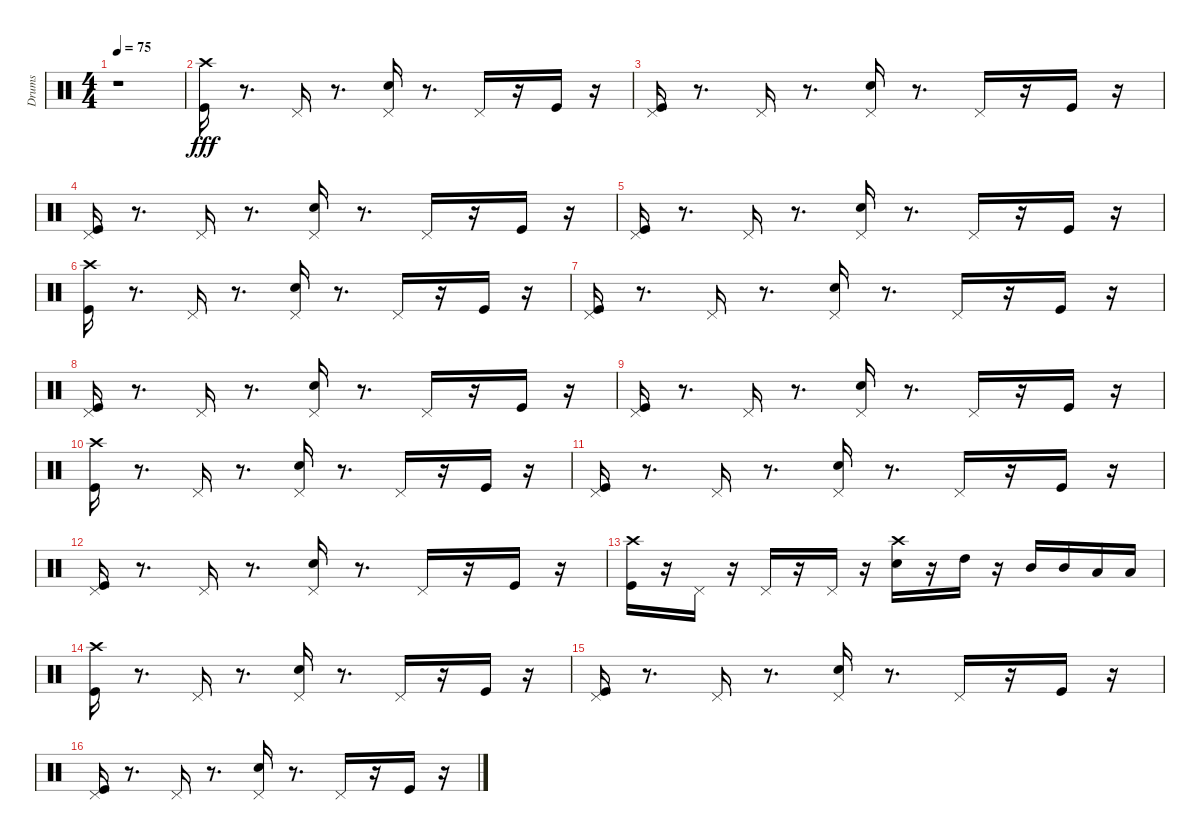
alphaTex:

\track ("Drums" "Drums") {instrument percussion}
\staff {score}
\articulation defaults
\ts (4 4)
\tempo 75
\clef neutral
\ks c
r.1{dy fff} |
("Crash high (hit)" "Kick (hit)").16 r.8{d} "Pedal Hi-Hat (hit)".16 r.8{d} ("Snare (hit) 2" "Pedal Hi-Hat (hit)").16 r.8{d} "Pedal Hi-Hat (hit)".16 r.16 "Kick (hit)".16 r.16 |
("Pedal Hi-Hat (hit)" "Kick (hit)").16 r.8{d} "Pedal Hi-Hat (hit)".16 r.8{d} ("Pedal Hi-Hat (hit)" "Snare (hit) 2").16 r.8{d} "Pedal Hi-Hat (hit)".16 r.16 "Kick (hit)".16 r.16 |
("Kick (hit)" "Pedal Hi-Hat (hit)").16 r.8{d} "Pedal Hi-Hat (hit)".16 r.8{d} ("Snare (hit) 2" "Pedal Hi-Hat (hit)").16 r.8{d} "Pedal Hi-Hat (hit)".16 r.16 "Kick (hit)".16 r.16 |
("Kick (hit)" "Pedal Hi-Hat (hit)").16 r.8{d} "Pedal Hi-Hat (hit)".16 r.8{d} ("Snare (hit) 2" "Pedal Hi-Hat (hit)").16 r.8{d} "Pedal Hi-Hat (hit)".16 r.16 "Kick (hit)".16 r.16 |
("Kick (hit)" "Crash high (hit)").16 r.8{d} "Pedal Hi-Hat (hit)".16 r.8{d} ("Pedal Hi-Hat (hit)" "Snare (hit) 2").16 r.8{d} "Pedal Hi-Hat (hit)".16 r.16 "Kick (hit)".16 r.16 |
("Kick (hit)" "Pedal Hi-Hat (hit)").16 r.8{d} "Pedal Hi-Hat (hit)".16 r.8{d} ("Snare (hit) 2" "Pedal Hi-Hat (hit)").16 r.8{d} "Pedal Hi-Hat (hit)".16 r.16 "Kick (hit)".16 r.16 |
("Pedal Hi-Hat (hit)" "Kick (hit)").16 r.8{d} "Pedal Hi-Hat (hit)".16 r.8{d} ("Pedal Hi-Hat (hit)" "Snare (hit) 2").16 r.8{d} "Pedal Hi-Hat (hit)".16 r.16 "Kick (hit)".16 r.16 |
("Pedal Hi-Hat (hit)" "Kick (hit)").16 r.8{d} "Pedal Hi-Hat (hit)".16 r.8{d} ("Pedal Hi-Hat (hit)" "Snare (hit) 2").16 r.8{d} "Pedal Hi-Hat (hit)".16 r.16 "Kick (hit)".16 r.16 |
("Crash high (hit)" "Kick (hit)").16 r.8{d} "Pedal Hi-Hat (hit)".16 r.8{d} ("Snare (hit) 2" "Pedal Hi-Hat (hit)").16 r.8{d} "Pedal Hi-Hat (hit)".16 r.16 "Kick (hit)".16 r.16 |
("Pedal Hi-Hat (hit)" "Kick (hit)").16 r.8{d} "Pedal Hi-Hat (hit)".16 r.8{d} ("Pedal Hi-Hat (hit)" "Snare (hit) 2").16 r.8{d} "Pedal Hi-Hat (hit)".16 r.16 "Kick (hit)".16 r.16 |
("Kick (hit)" "Pedal Hi-Hat (hit)").16 r.8{d} "Pedal Hi-Hat (hit)".16 r.8{d} ("Snare (hit) 2" "Pedal Hi-Hat (hit)").16 r.8{d} "Pedal Hi-Hat (hit)".16 r.16 "Kick (hit)".16 r.16 |
("Crash high (hit)" "Kick (hit)").16 r.16 "Pedal Hi-Hat (hit)".16 r.16 "Pedal Hi-Hat (hit)".16 r.16 "Pedal Hi-Hat (hit)".16 r.16 ("Snare (hit) 2" "Crash high (hit)").16 r.16 "High Tom (hit)".16 r.16 "Mid Tom (hit)".16 "Mid Tom (hit)".16 "Low Tom (hit)".16 "Low Tom (hit)".16 |
("Crash high (hit)" "Kick (hit)").16 r.8{d} "Pedal Hi-Hat (hit)".16 r.8{d} ("Snare (hit) 2" "Pedal Hi-Hat (hit)").16 r.8{d} "Pedal Hi-Hat (hit)".16 r.16 "Kick (hit)".16 r.16 |
("Pedal Hi-Hat (hit)" "Kick (hit)").16 r.8{d} "Pedal Hi-Hat (hit)".16 r.8{d} ("Pedal Hi-Hat (hit)" "Snare (hit) 2").16 r.8{d} "Pedal Hi-Hat (hit)".16 r.16 "Kick (hit)".16 r.16 |
("Kick (hit)" "Pedal Hi-Hat (hit)").16 r.8{d} "Pedal Hi-Hat (hit)".16 r.8{d} ("Snare (hit) 2" "Pedal Hi-Hat (hit)").16 r.8{d} "Pedal Hi-Hat (hit)".16 r.16 "Kick (hit)".16 r.16
